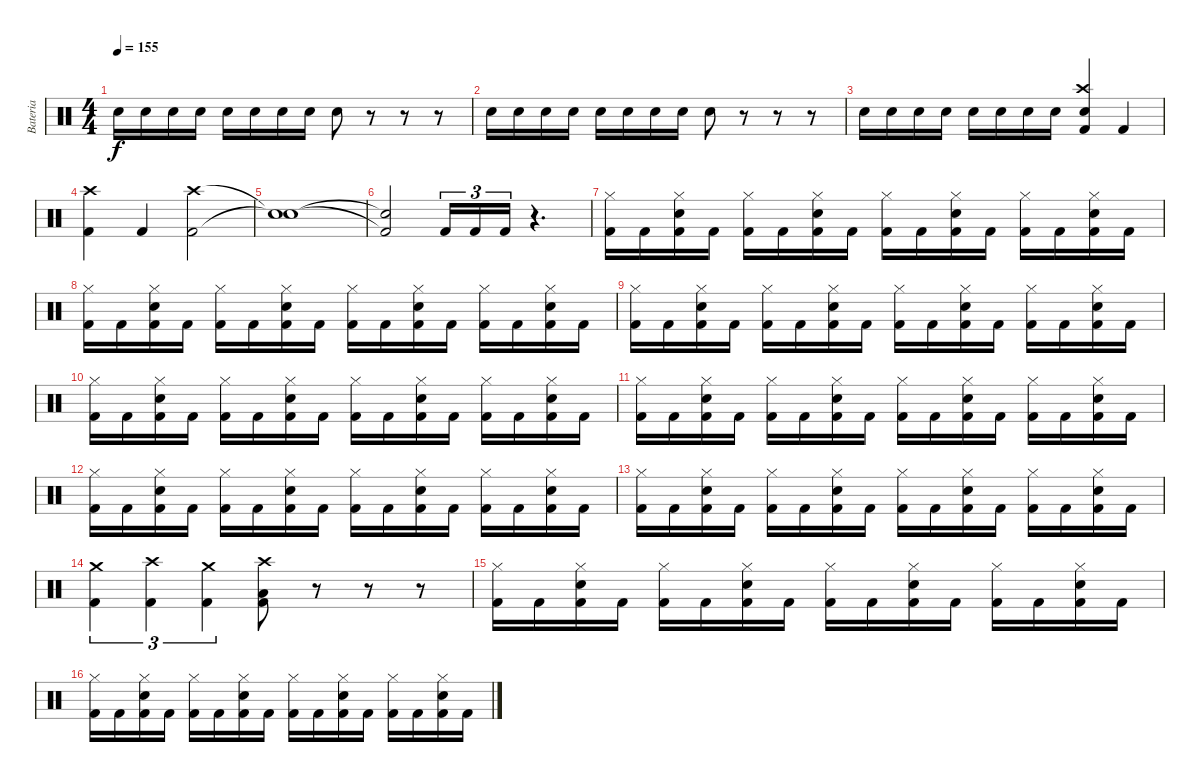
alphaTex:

\track ("Bateria" "Bateria") {instrument percussion}
\staff {score}
\articulation defaults
\ts (4 4)
\tempo 155
\clef neutral
\ks c "Electric Snare (hit)".16{dy f} "Electric Snare (hit)".16 "Electric Snare (hit)".16 "Electric Snare (hit)".16 "Electric Snare (hit)".16 "Electric Snare (hit)".16 "Electric Snare (hit)".16 "Electric Snare (hit)".16 "Electric Snare (hit)".8
r.8 r.8 r.8 |
"Electric Snare (hit)".16 "Electric Snare (hit)".16 "Electric Snare (hit)".16 "Electric Snare (hit)".16 "Electric Snare (hit)".16 "Electric Snare (hit)".16 "Electric Snare (hit)".16 "Electric Snare (hit)".16 "Electric Snare (hit)".8 r.8 r.8 r.8 |
"Electric Snare (hit)".16 "Electric Snare (hit)".16 "Electric Snare (hit)".16 "Electric Snare (hit)".16 "Electric Snare (hit)".16 "Electric Snare (hit)".16 "Electric Snare (hit)".16 "Electric Snare (hit)".16 ("Electric Snare (hit)" "Crash high (hit)" "Kick (hit) 2").4 "Kick (hit) 2".4 |
("Kick (hit) 2" "Crash high (hit)").4 "Kick (hit) 2".4 ("Kick (hit) 2" "Crash high (hit)").2 |
("Snare (hit)"{t} "Snare (hit)"{t}).1 |
("Kick (hit) 2"{t} "Snare (hit)"{t}).2 "Kick (hit) 2".16{tu (3 2)} "Kick (hit) 2".16{tu (3 2)} "Kick (hit) 2".16{tu (3 2)} r.4{d} |
("Kick (hit) 2" "Hi-Hat (closed)").16 "Kick (hit) 2".16 ("Kick (hit) 2" "Hi-Hat (closed)" "Electric Snare (hit)").16 "Kick (hit) 2".16 ("Kick (hit) 2" "Hi-Hat (closed)").16 "Kick (hit) 2".16 ("Kick (hit) 2" "Hi-Hat (closed)" "Electric Snare (hit)").16 "Kick (hit) 2".16 ("Kick (hit) 2" "Hi-Hat (closed)").16 "Kick (hit) 2".16 ("Kick (hit) 2" "Hi-Hat (closed)" "Electric Snare (hit)").16 "Kick (hit) 2".16 ("Kick (hit) 2" "Hi-Hat (closed)").16 "Kick (hit) 2".16 ("Kick (hit) 2" "Hi-Hat (closed)" "Electric Snare (hit)").16 "Kick (hit) 2".16 |
("Kick (hit) 2" "Hi-Hat (closed)").16 "Kick (hit) 2".16 ("Kick (hit) 2" "Hi-Hat (closed)" "Electric Snare (hit)").16 "Kick (hit) 2".16 ("Kick (hit) 2" "Hi-Hat (closed)").16 "Kick (hit) 2".16 ("Kick (hit) 2" "Hi-Hat (closed)" "Electric Snare (hit)").16 "Kick (hit) 2".16 ("Kick (hit) 2" "Hi-Hat (closed)").16 "Kick (hit) 2".16 ("Kick (hit) 2" "Hi-Hat (closed)" "Electric Snare (hit)").16 "Kick (hit) 2".16 ("Kick (hit) 2" "Hi-Hat (closed)").16 "Kick (hit) 2".16 ("Kick (hit) 2" "Hi-Hat (closed)" "Electric Snare (hit)").16 "Kick (hit) 2".16 |
("Kick (hit) 2" "Hi-Hat (closed)").16 "Kick (hit) 2".16 ("Kick (hit) 2" "Hi-Hat (closed)" "Electric Snare (hit)").16 "Kick (hit) 2".16 ("Kick (hit) 2" "Hi-Hat (closed)").16 "Kick (hit) 2".16 ("Kick (hit) 2" "Hi-Hat (closed)" "Electric Snare (hit)").16 "Kick (hit) 2".16 ("Kick (hit) 2" "Hi-Hat (closed)").16 "Kick (hit) 2".16 ("Kick (hit) 2" "Hi-Hat (closed)" "Electric Snare (hit)").16 "Kick (hit) 2".16 ("Kick (hit) 2" "Hi-Hat (closed)").16 "Kick (hit) 2".16 ("Kick (hit) 2" "Hi-Hat (closed)" "Electric Snare (hit)").16 "Kick (hit) 2".16 |
("Kick (hit) 2" "Hi-Hat (closed)").16 "Kick (hit) 2".16 ("Kick (hit) 2" "Hi-Hat (closed)" "Electric Snare (hit)").16 "Kick (hit) 2".16 ("Kick (hit) 2" "Hi-Hat (closed)").16 "Kick (hit) 2".16 ("Kick (hit) 2" "Hi-Hat (closed)" "Electric Snare (hit)").16 "Kick (hit) 2".16 ("Kick (hit) 2" "Hi-Hat (closed)").16 "Kick (hit) 2".16 ("Kick (hit) 2" "Hi-Hat (closed)" "Electric Snare (hit)").16 "Kick (hit) 2".16 ("Kick (hit) 2" "Hi-Hat (closed)").16 "Kick (hit) 2".16 ("Kick (hit) 2" "Hi-Hat (closed)" "Electric Snare (hit)").16 "Kick (hit) 2".16 |
("Kick (hit) 2" "Hi-Hat (closed)").16 "Kick (hit) 2".16 ("Kick (hit) 2" "Hi-Hat (closed)" "Electric Snare (hit)").16 "Kick (hit) 2".16 ("Kick (hit) 2" "Hi-Hat (closed)").16 "Kick (hit) 2".16 ("Kick (hit) 2" "Hi-Hat (closed)" "Electric Snare (hit)").16 "Kick (hit) 2".16 ("Kick (hit) 2" "Hi-Hat (closed)").16 "Kick (hit) 2".16 ("Kick (hit) 2" "Hi-Hat (closed)" "Electric Snare (hit)").16 "Kick (hit) 2".16 ("Kick (hit) 2" "Hi-Hat (closed)").16 "Kick (hit) 2".16 ("Kick (hit) 2" "Hi-Hat (closed)" "Electric Snare (hit)").16 "Kick (hit) 2".16 |
("Kick (hit) 2" "Hi-Hat (closed)").16 "Kick (hit) 2".16 ("Kick (hit) 2" "Hi-Hat (closed)" "Electric Snare (hit)").16 "Kick (hit) 2".16 ("Kick (hit) 2" "Hi-Hat (closed)").16 "Kick (hit) 2".16 ("Kick (hit) 2" "Hi-Hat (closed)" "Electric Snare (hit)").16 "Kick (hit) 2".16 ("Kick (hit) 2" "Hi-Hat (closed)").16 "Kick (hit) 2".16 ("Kick (hit) 2" "Hi-Hat (closed)" "Electric Snare (hit)").16 "Kick (hit) 2".16 ("Kick (hit) 2" "Hi-Hat (closed)").16 "Kick (hit) 2".16 ("Kick (hit) 2" "Hi-Hat (closed)" "Electric Snare (hit)").16 "Kick (hit) 2".16 |
("Kick (hit) 2" "Hi-Hat (closed)").16 "Kick (hit) 2".16 ("Kick (hit) 2" "Hi-Hat (closed)" "Electric Snare (hit)").16 "Kick (hit) 2".16 ("Kick (hit) 2" "Hi-Hat (closed)").16 "Kick (hit) 2".16 ("Kick (hit) 2" "Hi-Hat (closed)" "Electric Snare (hit)").16 "Kick (hit) 2".16 ("Kick (hit) 2" "Hi-Hat (closed)").16 "Kick (hit) 2".16 ("Kick (hit) 2" "Hi-Hat (closed)" "Electric Snare (hit)").16 "Kick (hit) 2".16 ("Kick (hit) 2" "Hi-Hat (closed)").16 "Kick (hit) 2".16 ("Kick (hit) 2" "Hi-Hat (closed)" "Electric Snare (hit)").16 "Kick (hit) 2".16 |
("Kick (hit) 2" "Crash medium (hit)").4{tu (3 2)} ("Kick (hit) 2" "Crash high (hit)").4{tu (3 2)} ("Kick (hit) 2" "Crash medium (hit)").4{tu (3 2)} ("Kick (hit) 2" "Low Tom (hit)" "Crash high (hit)").8 r.8 r.8 r.8 |
("Kick (hit) 2" "Hi-Hat (closed)").16 "Kick (hit) 2".16 ("Kick (hit) 2" "Hi-Hat (closed)" "Electric Snare (hit)").16 "Kick (hit) 2".16 ("Kick (hit) 2" "Hi-Hat (closed)").16 "Kick (hit) 2".16 ("Kick (hit) 2" "Hi-Hat (closed)" "Electric Snare (hit)").16 "Kick (hit) 2".16 ("Kick (hit) 2" "Hi-Hat (closed)").16 "Kick (hit) 2".16 ("Kick (hit) 2" "Hi-Hat (closed)" "Electric Snare (hit)").16 "Kick (hit) 2".16 ("Kick (hit) 2" "Hi-Hat (closed)").16 "Kick (hit) 2".16 ("Kick (hit) 2" "Hi-Hat (closed)" "Electric Snare (hit)").16 "Kick (hit) 2".16 |
("Kick (hit) 2" "Hi-Hat (closed)").16 "Kick (hit) 2".16 ("Kick (hit) 2" "Hi-Hat (closed)" "Electric Snare (hit)").16 "Kick (hit) 2".16 ("Kick (hit) 2" "Hi-Hat (closed)").16 "Kick (hit) 2".16 ("Kick (hit) 2" "Hi-Hat (closed)" "Electric Snare (hit)").16 "Kick (hit) 2".16 ("Kick (hit) 2" "Hi-Hat (closed)").16 "Kick (hit) 2".16 ("Kick (hit) 2" "Hi-Hat (closed)" "Electric Snare (hit)").16 "Kick (hit) 2".16 ("Kick (hit) 2" "Hi-Hat (closed)").16 "Kick (hit) 2".16 ("Kick (hit) 2" "Hi-Hat (closed)" "Electric Snare (hit)").16 "Kick (hit) 2".16
